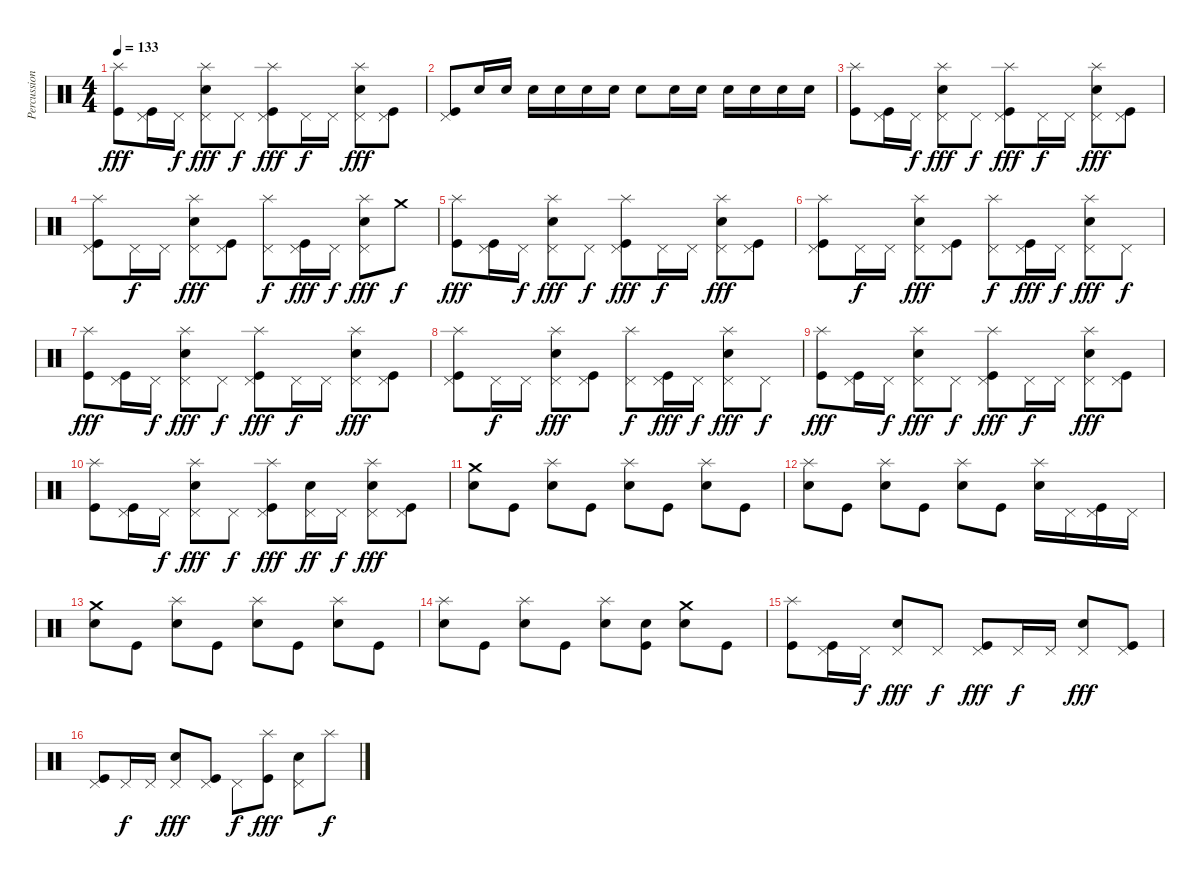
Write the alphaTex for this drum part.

\track ("Percussion" "Percussion") {instrument percussion}
\staff {score}
\articulation defaults
\ts (4 4)
\tempo 133
\clef neutral
\ks c
("Splash (hit)" "Kick (hit)").8{dy fff} ("Pedal Hi-Hat (hit)" "Kick (hit)").16 "Pedal Hi-Hat (hit)".16{dy f} ("Snare (hit) 2" "Pedal Hi-Hat (hit)" "Splash (hit)").8{dy fff} "Pedal Hi-Hat (hit)".8{dy f} ("Pedal Hi-Hat (hit)" "Splash (hit)" "Kick (hit)").8{dy fff} "Pedal Hi-Hat (hit)".16{dy f} "Pedal Hi-Hat (hit)".16 ("Snare (hit) 2" "Pedal Hi-Hat (hit)" "Splash (hit)").8{dy fff} ("Pedal Hi-Hat (hit)" "Kick (hit)").8 |
("Pedal Hi-Hat (hit)" "Kick (hit)").8 "Snare (hit) 2".16 "Snare (hit) 2".16 "Snare (hit) 2".16 "Snare (hit) 2".16 "Snare (hit) 2".16 "Snare (hit) 2".16 "Snare (hit) 2".8 "Snare (hit) 2".16 "Snare (hit) 2".16 "Snare (hit) 2".16 "Snare (hit) 2".16 "Snare (hit) 2".16 "Snare (hit) 2".16 |
("Splash (hit)" "Kick (hit)").8 ("Pedal Hi-Hat (hit)" "Kick (hit)").16 "Pedal Hi-Hat (hit)".16{dy f} ("Snare (hit) 2" "Pedal Hi-Hat (hit)" "Splash (hit)").8{dy fff} "Pedal Hi-Hat (hit)".8{dy f} ("Pedal Hi-Hat (hit)" "Splash (hit)" "Kick (hit)").8{dy fff} "Pedal Hi-Hat (hit)".16{dy f} "Pedal Hi-Hat (hit)".16 ("Snare (hit) 2" "Pedal Hi-Hat (hit)" "Splash (hit)").8{dy fff} ("Pedal Hi-Hat (hit)" "Kick (hit)").8 |
("Pedal Hi-Hat (hit)" "Splash (hit)" "Kick (hit)").8 "Pedal Hi-Hat (hit)".16{dy f} "Pedal Hi-Hat (hit)".16 ("Snare (hit) 2" "Pedal Hi-Hat (hit)" "Splash (hit)").8{dy fff} ("Pedal Hi-Hat (hit)" "Kick (hit)").8 ("Pedal Hi-Hat (hit)" "Splash (hit)").8{dy f} ("Pedal Hi-Hat (hit)" "Kick (hit)").16{dy fff} "Pedal Hi-Hat (hit)".16{dy f} ("Snare (hit) 2" "Pedal Hi-Hat (hit)" "Splash (hit)").8{dy fff} "Crash medium (hit)".8{dy f} |
("Splash (hit)" "Kick (hit)").8{dy fff} ("Pedal Hi-Hat (hit)" "Kick (hit)").16 "Pedal Hi-Hat (hit)".16{dy f} ("Snare (hit) 2" "Pedal Hi-Hat (hit)" "Splash (hit)").8{dy fff} "Pedal Hi-Hat (hit)".8{dy f} ("Pedal Hi-Hat (hit)" "Splash (hit)" "Kick (hit)").8{dy fff} "Pedal Hi-Hat (hit)".16{dy f} "Pedal Hi-Hat (hit)".16 ("Snare (hit) 2" "Pedal Hi-Hat (hit)" "Splash (hit)").8{dy fff} ("Pedal Hi-Hat (hit)" "Kick (hit)").8 |
("Pedal Hi-Hat (hit)" "Splash (hit)" "Kick (hit)").8 "Pedal Hi-Hat (hit)".16{dy f} "Pedal Hi-Hat (hit)".16 ("Snare (hit) 2" "Pedal Hi-Hat (hit)" "Splash (hit)").8{dy fff} ("Pedal Hi-Hat (hit)" "Kick (hit)").8 ("Pedal Hi-Hat (hit)" "Splash (hit)").8{dy f} ("Pedal Hi-Hat (hit)" "Kick (hit)").16{dy fff} "Pedal Hi-Hat (hit)".16{dy f} ("Snare (hit) 2" "Pedal Hi-Hat (hit)" "Splash (hit)").8{dy fff} "Pedal Hi-Hat (hit)".8{dy f} |
("Splash (hit)" "Kick (hit)").8{dy fff} ("Pedal Hi-Hat (hit)" "Kick (hit)").16 "Pedal Hi-Hat (hit)".16{dy f} ("Snare (hit) 2" "Pedal Hi-Hat (hit)" "Splash (hit)").8{dy fff} "Pedal Hi-Hat (hit)".8{dy f} ("Pedal Hi-Hat (hit)" "Splash (hit)" "Kick (hit)").8{dy fff} "Pedal Hi-Hat (hit)".16{dy f} "Pedal Hi-Hat (hit)".16 ("Snare (hit) 2" "Pedal Hi-Hat (hit)" "Splash (hit)").8{dy fff} ("Pedal Hi-Hat (hit)" "Kick (hit)").8 |
("Pedal Hi-Hat (hit)" "Splash (hit)" "Kick (hit)").8 "Pedal Hi-Hat (hit)".16{dy f} "Pedal Hi-Hat (hit)".16 ("Snare (hit) 2" "Pedal Hi-Hat (hit)" "Splash (hit)").8{dy fff} ("Pedal Hi-Hat (hit)" "Kick (hit)").8 ("Pedal Hi-Hat (hit)" "Splash (hit)").8{dy f} ("Pedal Hi-Hat (hit)" "Kick (hit)").16{dy fff} "Pedal Hi-Hat (hit)".16{dy f} ("Snare (hit) 2" "Pedal Hi-Hat (hit)" "Splash (hit)").8{dy fff} "Pedal Hi-Hat (hit)".8{dy f} |
("Splash (hit)" "Kick (hit)").8{dy fff} ("Pedal Hi-Hat (hit)" "Kick (hit)").16 "Pedal Hi-Hat (hit)".16{dy f} ("Snare (hit) 2" "Pedal Hi-Hat (hit)" "Splash (hit)").8{dy fff} "Pedal Hi-Hat (hit)".8{dy f} ("Pedal Hi-Hat (hit)" "Splash (hit)" "Kick (hit)").8{dy fff} "Pedal Hi-Hat (hit)".16{dy f} "Pedal Hi-Hat (hit)".16 ("Snare (hit) 2" "Pedal Hi-Hat (hit)" "Splash (hit)").8{dy fff} ("Pedal Hi-Hat (hit)" "Kick (hit)").8 |
("Splash (hit)" "Kick (hit)").8 ("Pedal Hi-Hat (hit)" "Kick (hit)").16 "Pedal Hi-Hat (hit)".16{dy f} ("Snare (hit) 2" "Pedal Hi-Hat (hit)" "Splash (hit)").8{dy fff} "Pedal Hi-Hat (hit)".8{dy f} ("Pedal Hi-Hat (hit)" "Splash (hit)" "Kick (hit)").8{dy fff} ("Snare (hit) 2" "Pedal Hi-Hat (hit)").16{dy ff} "Pedal Hi-Hat (hit)".16{dy f} ("Snare (hit) 2" "Pedal Hi-Hat (hit)" "Splash (hit)").8{dy fff} ("Pedal Hi-Hat (hit)" "Kick (hit)").8 |
("Snare (hit) 2" "Crash medium (hit)").8 "Kick (hit)".8 ("Snare (hit) 2" "Splash (hit)").8 "Kick (hit)".8 ("Snare (hit) 2" "Splash (hit)").8 "Kick (hit)".8 ("Snare (hit) 2" "Splash (hit)").8 "Kick (hit)".8 |
("Snare (hit) 2" "Splash (hit)").8 "Kick (hit)".8 ("Snare (hit) 2" "Splash (hit)").8 "Kick (hit)".8 ("Snare (hit) 2" "Splash (hit)").8 "Kick (hit)".8 ("Snare (hit) 2" "Splash (hit)").16 "Pedal Hi-Hat (hit)".16 ("Pedal Hi-Hat (hit)" "Kick (hit)").16 "Pedal Hi-Hat (hit)".16 |
("Snare (hit) 2" "Crash medium (hit)").8 "Kick (hit)".8 ("Snare (hit) 2" "Splash (hit)").8 "Kick (hit)".8 ("Snare (hit) 2" "Splash (hit)").8 "Kick (hit)".8 ("Snare (hit) 2" "Splash (hit)").8 "Kick (hit)".8 |
("Snare (hit) 2" "Splash (hit)").8 "Kick (hit)".8 ("Snare (hit) 2" "Splash (hit)").8 "Kick (hit)".8 ("Snare (hit) 2" "Splash (hit)").8 ("Snare (hit) 2" "Kick (hit)").8 ("Snare (hit) 2" "Crash medium (hit)").8 "Kick (hit)".8 |
("Splash (hit)" "Kick (hit)").8 ("Pedal Hi-Hat (hit)" "Kick (hit)").16 "Pedal Hi-Hat (hit)".16{dy f} ("Snare (hit) 2" "Pedal Hi-Hat (hit)").8{dy fff} "Pedal Hi-Hat (hit)".8{dy f} ("Pedal Hi-Hat (hit)" "Kick (hit)").8{dy fff} "Pedal Hi-Hat (hit)".16{dy f} "Pedal Hi-Hat (hit)".16 ("Snare (hit) 2" "Pedal Hi-Hat (hit)").8{dy fff} ("Pedal Hi-Hat (hit)" "Kick (hit)").8 |
("Pedal Hi-Hat (hit)" "Kick (hit)").8 "Pedal Hi-Hat (hit)".16{dy f} "Pedal Hi-Hat (hit)".16 ("Snare (hit) 2" "Pedal Hi-Hat (hit)").8{dy fff} ("Pedal Hi-Hat (hit)" "Kick (hit)").8 "Pedal Hi-Hat (hit)".8{dy f} ("Splash (hit)" "Kick (hit)").8{dy fff} ("Snare (hit) 2" "Pedal Hi-Hat (hit)").8 "Splash (hit)".8{dy f}
